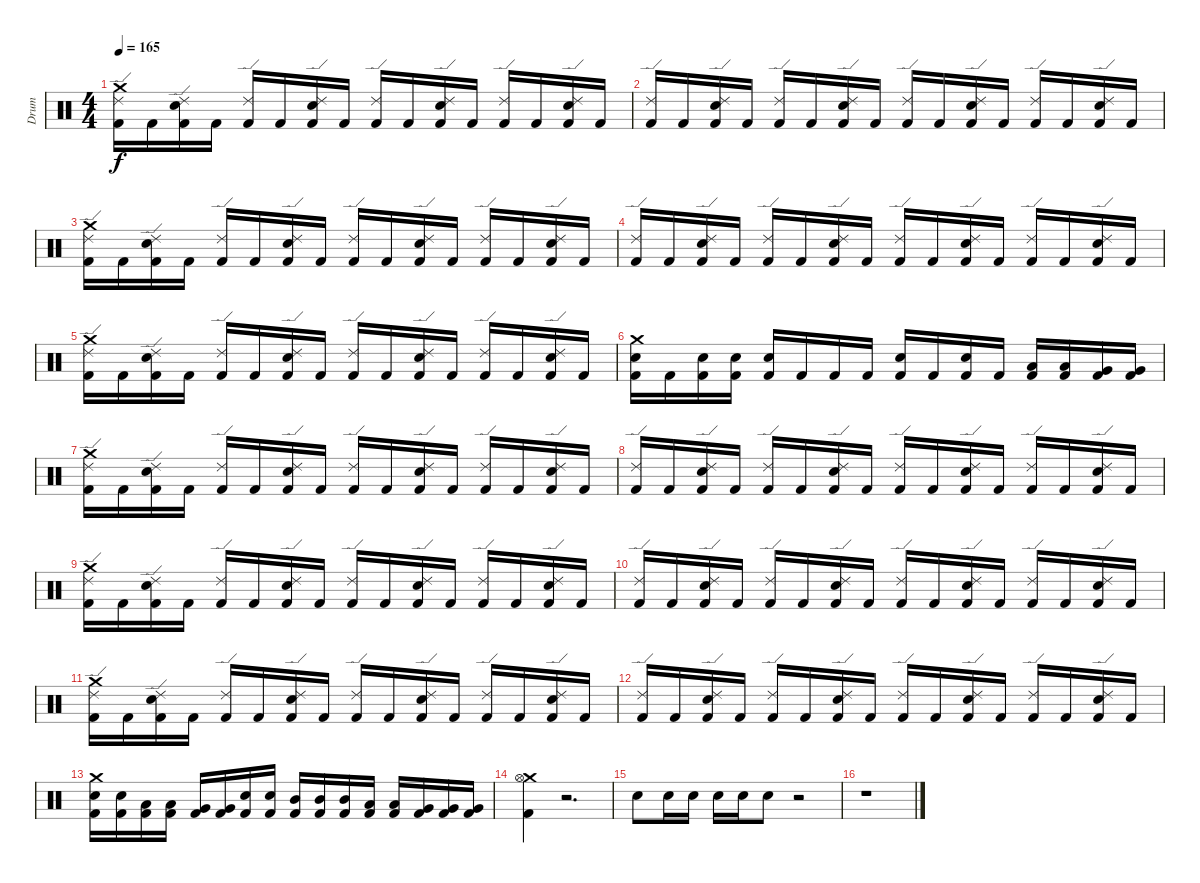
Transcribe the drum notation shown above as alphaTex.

\track ("Drum" "Drum") {instrument percussion}
\staff {score}
\articulation defaults
\ts (4 4)
\tempo 165
\clef neutral
\ks c
("Crash medium (hit)" "Ride (edge) 2" "Kick (hit) 2").16{dy f} "Kick (hit) 2".16 ("Electric Snare (hit)" "Ride (edge) 2" "Kick (hit) 2").16 "Kick (hit) 2".16 ("Ride (edge) 2" "Kick (hit) 2").16 "Kick (hit) 2".16 ("Electric Snare (hit)" "Ride (edge) 2" "Kick (hit) 2").16 "Kick (hit) 2".16 ("Ride (edge) 2" "Kick (hit) 2").16 "Kick (hit) 2".16 ("Electric Snare (hit)" "Ride (edge) 2" "Kick (hit) 2").16 "Kick (hit) 2".16 ("Ride (edge) 2" "Kick (hit) 2").16 "Kick (hit) 2".16 ("Electric Snare (hit)" "Ride (edge) 2" "Kick (hit) 2").16 "Kick (hit) 2".16 |
("Ride (edge) 2" "Kick (hit) 2").16 "Kick (hit) 2".16 ("Electric Snare (hit)" "Ride (edge) 2" "Kick (hit) 2").16 "Kick (hit) 2".16 ("Ride (edge) 2" "Kick (hit) 2").16 "Kick (hit) 2".16 ("Electric Snare (hit)" "Ride (edge) 2" "Kick (hit) 2").16 "Kick (hit) 2".16 ("Ride (edge) 2" "Kick (hit) 2").16 "Kick (hit) 2".16 ("Electric Snare (hit)" "Ride (edge) 2" "Kick (hit) 2").16 "Kick (hit) 2".16 ("Ride (edge) 2" "Kick (hit) 2").16 "Kick (hit) 2".16 ("Electric Snare (hit)" "Ride (edge) 2" "Kick (hit) 2").16 "Kick (hit) 2".16 |
("Crash medium (hit)" "Ride (edge) 2" "Kick (hit) 2").16 "Kick (hit) 2".16 ("Electric Snare (hit)" "Ride (edge) 2" "Kick (hit) 2").16 "Kick (hit) 2".16 ("Ride (edge) 2" "Kick (hit) 2").16 "Kick (hit) 2".16 ("Electric Snare (hit)" "Ride (edge) 2" "Kick (hit) 2").16 "Kick (hit) 2".16 ("Ride (edge) 2" "Kick (hit) 2").16 "Kick (hit) 2".16 ("Electric Snare (hit)" "Ride (edge) 2" "Kick (hit) 2").16 "Kick (hit) 2".16 ("Ride (edge) 2" "Kick (hit) 2").16 "Kick (hit) 2".16 ("Electric Snare (hit)" "Ride (edge) 2" "Kick (hit) 2").16 "Kick (hit) 2".16 |
("Ride (edge) 2" "Kick (hit) 2").16 "Kick (hit) 2".16 ("Electric Snare (hit)" "Ride (edge) 2" "Kick (hit) 2").16 "Kick (hit) 2".16 ("Ride (edge) 2" "Kick (hit) 2").16 "Kick (hit) 2".16 ("Electric Snare (hit)" "Ride (edge) 2" "Kick (hit) 2").16 "Kick (hit) 2".16 ("Ride (edge) 2" "Kick (hit) 2").16 "Kick (hit) 2".16 ("Electric Snare (hit)" "Ride (edge) 2" "Kick (hit) 2").16 "Kick (hit) 2".16 ("Ride (edge) 2" "Kick (hit) 2").16 "Kick (hit) 2".16 ("Electric Snare (hit)" "Ride (edge) 2" "Kick (hit) 2").16 "Kick (hit) 2".16 |
("Crash medium (hit)" "Ride (edge) 2" "Kick (hit) 2").16 "Kick (hit) 2".16 ("Electric Snare (hit)" "Ride (edge) 2" "Kick (hit) 2").16 "Kick (hit) 2".16 ("Ride (edge) 2" "Kick (hit) 2").16 "Kick (hit) 2".16 ("Electric Snare (hit)" "Ride (edge) 2" "Kick (hit) 2").16 "Kick (hit) 2".16 ("Ride (edge) 2" "Kick (hit) 2").16 "Kick (hit) 2".16 ("Electric Snare (hit)" "Ride (edge) 2" "Kick (hit) 2").16 "Kick (hit) 2".16 ("Ride (edge) 2" "Kick (hit) 2").16 "Kick (hit) 2".16 ("Electric Snare (hit)" "Ride (edge) 2" "Kick (hit) 2").16 "Kick (hit) 2".16 |
("Crash medium (hit)" "Electric Snare (hit)" "Kick (hit) 2").16 "Kick (hit) 2".16 ("Electric Snare (hit)" "Kick (hit) 2").16 ("Electric Snare (hit)" "Kick (hit) 2").16 ("Electric Snare (hit)" "Kick (hit) 2").16 "Kick (hit) 2".16 "Kick (hit) 2".16 "Kick (hit) 2".16 ("Electric Snare (hit)" "Kick (hit) 2").16 "Kick (hit) 2".16 ("Electric Snare (hit)" "Kick (hit) 2").16 "Kick (hit) 2".16 ("Low Tom (hit)" "Kick (hit) 2").16 ("Low Tom (hit)" "Kick (hit) 2").16 ("Very Low Tom (hit)" "Kick (hit) 2").16 ("Very Low Tom (hit)" "Kick (hit) 2").16 |
("Crash medium (hit)" "Ride (edge) 2" "Kick (hit) 2").16 "Kick (hit) 2".16 ("Electric Snare (hit)" "Ride (edge) 2" "Kick (hit) 2").16 "Kick (hit) 2".16 ("Ride (edge) 2" "Kick (hit) 2").16 "Kick (hit) 2".16 ("Electric Snare (hit)" "Ride (edge) 2" "Kick (hit) 2").16 "Kick (hit) 2".16 ("Ride (edge) 2" "Kick (hit) 2").16 "Kick (hit) 2".16 ("Electric Snare (hit)" "Ride (edge) 2" "Kick (hit) 2").16 "Kick (hit) 2".16 ("Ride (edge) 2" "Kick (hit) 2").16 "Kick (hit) 2".16 ("Electric Snare (hit)" "Ride (edge) 2" "Kick (hit) 2").16 "Kick (hit) 2".16 |
("Ride (edge) 2" "Kick (hit) 2").16 "Kick (hit) 2".16 ("Electric Snare (hit)" "Ride (edge) 2" "Kick (hit) 2").16 "Kick (hit) 2".16 ("Ride (edge) 2" "Kick (hit) 2").16 "Kick (hit) 2".16 ("Electric Snare (hit)" "Ride (edge) 2" "Kick (hit) 2").16 "Kick (hit) 2".16 ("Ride (edge) 2" "Kick (hit) 2").16 "Kick (hit) 2".16 ("Electric Snare (hit)" "Ride (edge) 2" "Kick (hit) 2").16 "Kick (hit) 2".16 ("Ride (edge) 2" "Kick (hit) 2").16 "Kick (hit) 2".16 ("Electric Snare (hit)" "Ride (edge) 2" "Kick (hit) 2").16 "Kick (hit) 2".16 |
("Crash medium (hit)" "Ride (edge) 2" "Kick (hit) 2").16 "Kick (hit) 2".16 ("Electric Snare (hit)" "Ride (edge) 2" "Kick (hit) 2").16 "Kick (hit) 2".16 ("Ride (edge) 2" "Kick (hit) 2").16 "Kick (hit) 2".16 ("Electric Snare (hit)" "Ride (edge) 2" "Kick (hit) 2").16 "Kick (hit) 2".16 ("Ride (edge) 2" "Kick (hit) 2").16 "Kick (hit) 2".16 ("Electric Snare (hit)" "Ride (edge) 2" "Kick (hit) 2").16 "Kick (hit) 2".16 ("Ride (edge) 2" "Kick (hit) 2").16 "Kick (hit) 2".16 ("Electric Snare (hit)" "Ride (edge) 2" "Kick (hit) 2").16 "Kick (hit) 2".16 |
("Ride (edge) 2" "Kick (hit) 2").16 "Kick (hit) 2".16 ("Electric Snare (hit)" "Ride (edge) 2" "Kick (hit) 2").16 "Kick (hit) 2".16 ("Ride (edge) 2" "Kick (hit) 2").16 "Kick (hit) 2".16 ("Electric Snare (hit)" "Ride (edge) 2" "Kick (hit) 2").16 "Kick (hit) 2".16 ("Ride (edge) 2" "Kick (hit) 2").16 "Kick (hit) 2".16 ("Electric Snare (hit)" "Ride (edge) 2" "Kick (hit) 2").16 "Kick (hit) 2".16 ("Ride (edge) 2" "Kick (hit) 2").16 "Kick (hit) 2".16 ("Electric Snare (hit)" "Ride (edge) 2" "Kick (hit) 2").16 "Kick (hit) 2".16 |
("Crash medium (hit)" "Ride (edge) 2" "Kick (hit) 2").16 "Kick (hit) 2".16 ("Electric Snare (hit)" "Ride (edge) 2" "Kick (hit) 2").16 "Kick (hit) 2".16 ("Ride (edge) 2" "Kick (hit) 2").16 "Kick (hit) 2".16 ("Electric Snare (hit)" "Ride (edge) 2" "Kick (hit) 2").16 "Kick (hit) 2".16 ("Ride (edge) 2" "Kick (hit) 2").16 "Kick (hit) 2".16 ("Electric Snare (hit)" "Ride (edge) 2" "Kick (hit) 2").16 "Kick (hit) 2".16 ("Ride (edge) 2" "Kick (hit) 2").16 "Kick (hit) 2".16 ("Electric Snare (hit)" "Ride (edge) 2" "Kick (hit) 2").16 "Kick (hit) 2".16 |
("Ride (edge) 2" "Kick (hit) 2").16 "Kick (hit) 2".16 ("Electric Snare (hit)" "Ride (edge) 2" "Kick (hit) 2").16 "Kick (hit) 2".16 ("Ride (edge) 2" "Kick (hit) 2").16 "Kick (hit) 2".16 ("Electric Snare (hit)" "Ride (edge) 2" "Kick (hit) 2").16 "Kick (hit) 2".16 ("Ride (edge) 2" "Kick (hit) 2").16 "Kick (hit) 2".16 ("Electric Snare (hit)" "Ride (edge) 2" "Kick (hit) 2").16 "Kick (hit) 2".16 ("Ride (edge) 2" "Kick (hit) 2").16 "Kick (hit) 2".16 ("Electric Snare (hit)" "Ride (edge) 2" "Kick (hit) 2").16 "Kick (hit) 2".16 |
("Crash medium (hit)" "Electric Snare (hit)" "Kick (hit) 2").16 ("Electric Snare (hit)" "Kick (hit) 2").16 ("Low Tom (hit)" "Kick (hit) 2").16 ("Low Tom (hit)" "Kick (hit) 2").16 ("Very Low Tom (hit)" "Kick (hit) 2").16 ("Very Low Tom (hit)" "Kick (hit) 2").16 ("Electric Snare (hit)" "Kick (hit) 2").16 ("Electric Snare (hit)" "Kick (hit) 2").16 ("Mid Tom (hit)" "Kick (hit) 2").16 ("Mid Tom (hit)" "Kick (hit) 2").16 ("Mid Tom (hit)" "Kick (hit) 2").16 ("Low Tom (hit)" "Kick (hit) 2").16 ("Low Tom (hit)" "Kick (hit) 2").16 ("Very Low Tom (hit)" "Kick (hit) 2").16 ("Very Low Tom (hit)" "Kick (hit) 2").16 ("Very Low Tom (hit)" "Kick (hit) 2").16 |
("Crash medium (hit)" "Hi-Hat (open)" "Kick (hit) 2").4 r.2{d} |
"Electric Snare (hit)".8{volume 10} "Electric Snare (hit)".16 "Electric Snare (hit)".16 "Electric Snare (hit)".16 "Electric Snare (hit)".16 "Electric Snare (hit)".8 r.2 |
r.1
